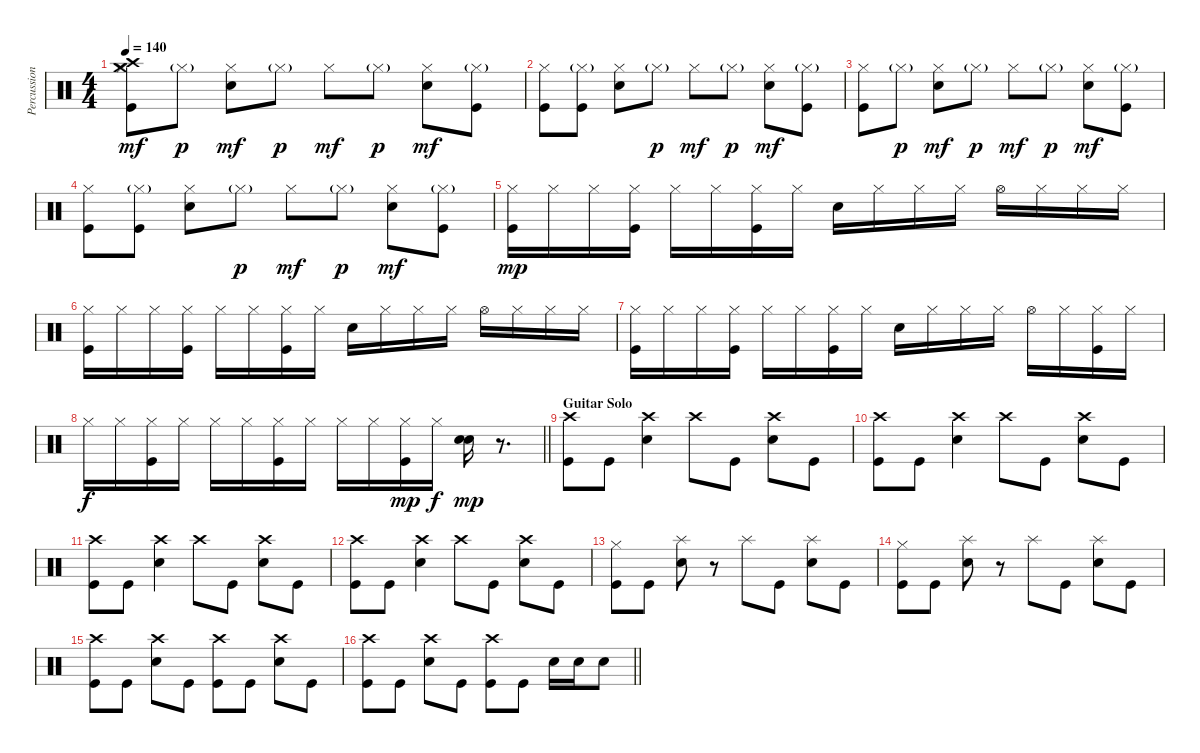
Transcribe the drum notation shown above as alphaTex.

\track ("Percussion" "Percussion") {instrument percussion}
\staff {score}
\articulation defaults
\ts (4 4)
\tempo 140
\clef neutral
\ks c
("Crash medium (hit)" "Crash high (hit)" "Hi-Hat (closed)" "Kick (hit)").8{dy mf} "Hi-Hat (closed)"{g}.8{dy p} ("Hi-Hat (closed)" "Snare (hit) 2").8{dy mf} "Hi-Hat (closed)"{g}.8{dy p} "Hi-Hat (closed)".8{dy mf} "Hi-Hat (closed)"{g}.8{dy p} ("Hi-Hat (closed)" "Snare (hit) 2").8{dy mf} ("Hi-Hat (closed)"{g} "Kick (hit)").8 |
("Hi-Hat (closed)" "Kick (hit)").8 ("Hi-Hat (closed)"{g} "Kick (hit)").8 ("Hi-Hat (closed)" "Snare (hit) 2").8 "Hi-Hat (closed)"{g}.8{dy p} "Hi-Hat (closed)".8{dy mf} "Hi-Hat (closed)"{g}.8{dy p} ("Hi-Hat (closed)" "Snare (hit) 2").8{dy mf} ("Hi-Hat (closed)"{g} "Kick (hit)").8 |
("Hi-Hat (closed)" "Kick (hit)").8 "Hi-Hat (closed)"{g}.8{dy p} ("Hi-Hat (closed)" "Snare (hit) 2").8{dy mf} "Hi-Hat (closed)"{g}.8{dy p} "Hi-Hat (closed)".8{dy mf} "Hi-Hat (closed)"{g}.8{dy p} ("Hi-Hat (closed)" "Snare (hit) 2").8{dy mf} ("Hi-Hat (closed)"{g} "Kick (hit)").8 |
("Hi-Hat (closed)" "Kick (hit)").8 ("Hi-Hat (closed)"{g} "Kick (hit)").8 ("Hi-Hat (closed)" "Snare (hit) 2").8 "Hi-Hat (closed)"{g}.8{dy p} "Hi-Hat (closed)".8{dy mf} "Hi-Hat (closed)"{g}.8{dy p} ("Hi-Hat (closed)" "Snare (hit) 2").8{dy mf} ("Hi-Hat (closed)"{g} "Kick (hit)").8 |
("Hi-Hat (closed)" "Kick (hit)").16{dy mp} "Hi-Hat (closed)".16 "Hi-Hat (closed)".16 ("Hi-Hat (closed)" "Kick (hit)").16 "Hi-Hat (closed)".16 "Hi-Hat (closed)".16 ("Hi-Hat (closed)" "Kick (hit)").16 "Hi-Hat (closed)".16 "Snare (hit) 2".16 "Hi-Hat (closed)".16 "Hi-Hat (closed)".16 "Hi-Hat (closed)".16 "Hi-Hat (open)".16 "Hi-Hat (closed)".16 "Hi-Hat (closed)".16 "Hi-Hat (closed)".16 |
("Hi-Hat (closed)" "Kick (hit)").16 "Hi-Hat (closed)".16 "Hi-Hat (closed)".16 ("Hi-Hat (closed)" "Kick (hit)").16 "Hi-Hat (closed)".16 "Hi-Hat (closed)".16 ("Hi-Hat (closed)" "Kick (hit)").16 "Hi-Hat (closed)".16 "Snare (hit) 2".16 "Hi-Hat (closed)".16 "Hi-Hat (closed)".16 "Hi-Hat (closed)".16 "Hi-Hat (open)".16 "Hi-Hat (closed)".16 "Hi-Hat (closed)".16 "Hi-Hat (closed)".16 |
("Hi-Hat (closed)" "Kick (hit)").16 "Hi-Hat (closed)".16 "Hi-Hat (closed)".16 ("Hi-Hat (closed)" "Kick (hit)").16 "Hi-Hat (closed)".16 "Hi-Hat (closed)".16 ("Hi-Hat (closed)" "Kick (hit)").16 "Hi-Hat (closed)".16 "Snare (hit) 2".16 "Hi-Hat (closed)".16 "Hi-Hat (closed)".16 "Hi-Hat (closed)".16 "Hi-Hat (open)".16 "Hi-Hat (closed)".16 ("Hi-Hat (closed)" "Kick (hit)").16 "Hi-Hat (closed)".16 |
\barLineRight lightlight "Hi-Hat (closed)".16{dy f} "Hi-Hat (closed)".16
("Hi-Hat (closed)" "Kick (hit)").16 "Hi-Hat (closed)".16 "Hi-Hat (closed)".16 "Hi-Hat (closed)".16 ("Hi-Hat (closed)" "Kick (hit)").16 "Hi-Hat (closed)".16 "Hi-Hat (closed)".16 "Hi-Hat (closed)".16 ("Hi-Hat (closed)" "Kick (hit)").16{dy mp} "Hi-Hat (closed)".16{dy f} ("Snare (hit) 2" "Snare (hit) 2").16{dy mp} r.8{d} |
\section ("" "Guitar Solo")
("Crash high (hit)" "Kick (hit)").8 "Kick (hit)".8 ("Crash high (hit)" "Snare (hit) 2").4 "Crash high (hit)".8 "Kick (hit)".8 ("Crash high (hit)" "Snare (hit) 2").8 "Kick (hit)".8 |
("Crash high (hit)" "Kick (hit)").8 "Kick (hit)".8 ("Crash high (hit)" "Snare (hit) 2").4 "Crash high (hit)".8 "Kick (hit)".8 ("Crash high (hit)" "Snare (hit) 2").8 "Kick (hit)".8 |
("Crash high (hit)" "Kick (hit)").8 "Kick (hit)".8 ("Crash high (hit)" "Snare (hit) 2").4 "Crash high (hit)".8 "Kick (hit)".8 ("Crash high (hit)" "Snare (hit) 2").8 "Kick (hit)".8 |
("Crash high (hit)" "Kick (hit)").8 "Kick (hit)".8 ("Crash high (hit)" "Snare (hit) 2").4 "Crash high (hit)".8 "Kick (hit)".8 ("Crash high (hit)" "Snare (hit) 2").8 "Kick (hit)".8 |
("Hi-Hat (closed)" "Kick (hit)").8 "Kick (hit)".8 ("Splash (hit)" "Snare (hit) 2").8 r.8 "Splash (hit)".8 "Kick (hit)".8 ("Splash (hit)" "Snare (hit) 2").8 "Kick (hit)".8 |
("Hi-Hat (closed)" "Kick (hit)").8 "Kick (hit)".8 ("Splash (hit)" "Snare (hit) 2").8 r.8 "Splash (hit)".8 "Kick (hit)".8 ("Splash (hit)" "Snare (hit) 2").8 "Kick (hit)".8 |
("Crash high (hit)" "Kick (hit)").8 "Kick (hit)".8 ("Crash high (hit)" "Snare (hit) 2").8 "Kick (hit)".8 ("Crash high (hit)" "Kick (hit)").8 "Kick (hit)".8 ("Crash high (hit)" "Snare (hit) 2").8 "Kick (hit)".8 |
\barLineRight lightlight
("Crash high (hit)" "Kick (hit)").8 "Kick (hit)".8 ("Crash high (hit)" "Snare (hit) 2").8 "Kick (hit)".8 ("Crash high (hit)" "Kick (hit)").8 "Kick (hit)".8 "Snare (hit) 2".16 "Snare (hit) 2".16 "Snare (hit) 2".8
